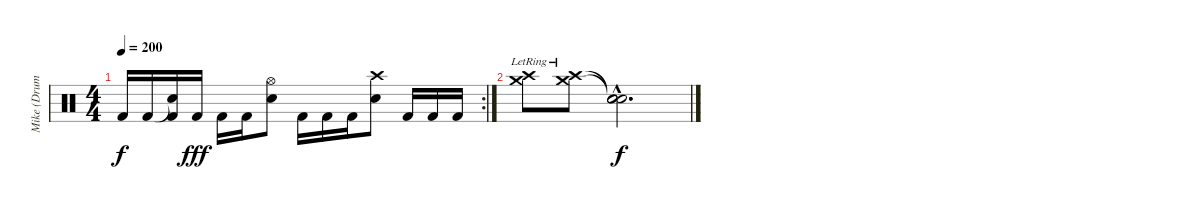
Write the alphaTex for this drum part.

\track ("Mike (Drums)" "Mike (Drum") {instrument percussion}
\staff {score}
\articulation defaults
\rc 2
\ts (4 4)
\tempo 200
\clef neutral
\ks c "Kick (hit) 2".16{dy f} "Kick (hit) 2".16
("Snare (hit)"{t} "Kick (hit) 2").16 "Kick (hit) 2".16{dy fff} "Kick (hit) 2".16 "Kick (hit) 2".16 ("Snare (hit) 2" "Hi-Hat (open)").8 "Kick (hit) 2".16 "Kick (hit) 2".16 "Kick (hit) 2".16 ("Snare (hit) 2" "Crash high (hit)").8 "Kick (hit) 2".16 "Kick (hit) 2".16 "Kick (hit) 2".16 |
("Crash high (hit)"{lr} "Crash medium (hit)"{lr}).8 ("Crash high (hit)"{lr} "Crash medium (hit)"{lr}).8 ("Snare (hit)"{hac t} "Snare (hit)"{hac t} "Snare (hit)"{hac t} "Snare (hit)"{hac t}).2{d dy f}
